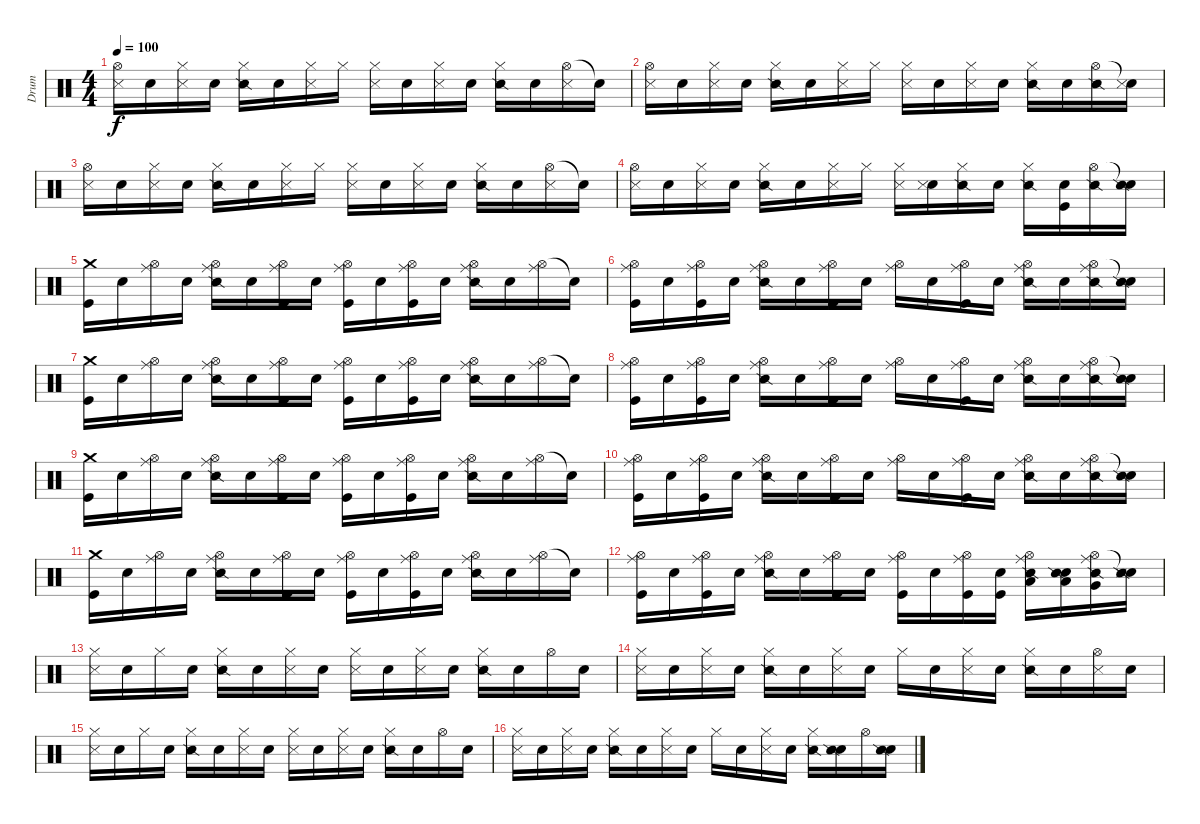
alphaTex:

\track ("Drum" "Drum") {instrument percussion}
\staff {score}
\articulation defaults
\ts (4 4)
\tempo 100
\clef neutral
\ks c
("Hi-Hat (open)" "Metronome (hit)").16{dy f} "Snare (hit)".16 ("Hi-Hat (closed)" "Metronome (hit)").16 "Snare (hit)".16 ("Hi-Hat (closed)" "Snare (side stick) 2").16 "Snare (hit)".16 ("Hi-Hat (closed)" "Metronome (hit)").16 "Hi-Hat (closed)".16 ("Hi-Hat (closed)" "Metronome (hit)").16 "Snare (hit)".16 ("Hi-Hat (closed)" "Metronome (hit)").16 "Snare (hit)".16 ("Hi-Hat (closed)" "Snare (side stick) 2").16 "Snare (hit)".16 ("Hi-Hat (open)" "Metronome (hit)").16 "Snare (hit)"{t}.16 |
("Hi-Hat (open)" "Metronome (hit)").16 "Snare (hit)".16 ("Hi-Hat (closed)" "Metronome (hit)").16 "Snare (hit)".16 ("Hi-Hat (closed)" "Snare (side stick) 2").16 "Snare (hit)".16 ("Hi-Hat (closed)" "Metronome (hit)").16 "Hi-Hat (closed)".16 ("Hi-Hat (closed)" "Metronome (hit)").16 "Snare (hit)".16 ("Hi-Hat (closed)" "Metronome (hit)").16 "Snare (hit)".16 ("Hi-Hat (closed)" "Snare (side stick) 2").16 "Snare (hit)".16 ("Hi-Hat (open)" "Snare (side stick) 2").16 ("Snare (hit)"{t} "Metronome (hit)").16 |
("Hi-Hat (open)" "Metronome (hit)").16 "Snare (hit)".16 ("Hi-Hat (closed)" "Metronome (hit)").16 "Snare (hit)".16 ("Hi-Hat (closed)" "Snare (side stick) 2").16 "Snare (hit)".16 ("Hi-Hat (closed)" "Metronome (hit)").16 "Hi-Hat (closed)".16 ("Hi-Hat (closed)" "Metronome (hit)").16 "Snare (hit)".16 ("Hi-Hat (closed)" "Metronome (hit)").16 "Snare (hit)".16 ("Hi-Hat (closed)" "Snare (side stick) 2").16 "Snare (hit)".16 ("Hi-Hat (open)" "Metronome (hit)").16 "Snare (hit)"{t}.16 |
("Hi-Hat (open)" "Metronome (hit)").16 "Snare (hit)".16 ("Hi-Hat (closed)" "Metronome (hit)").16 "Snare (hit)".16 ("Hi-Hat (closed)" "Snare (side stick) 2").16 "Snare (hit)".16 ("Hi-Hat (closed)" "Metronome (hit)").16 "Hi-Hat (closed)".16 ("Hi-Hat (closed)" "Metronome (hit)").16 ("Snare (hit)" "Metronome (hit)").16 ("Hi-Hat (closed)" "Snare (side stick) 2").16 "Snare (hit)".16 ("Hi-Hat (closed)" "Snare (side stick) 2").16 ("Snare (hit)" "Kick (hit)").16 ("Hi-Hat (open)" "Snare (side stick) 2").16 ("Snare (hit)"{t} "Snare (side stick) 2").16 |
("Crash medium (hit)" "Kick (hit)").16 "Snare (hit)".16 ("Hi-Hat (open)" "Ride (middle)").16 "Snare (hit)".16 ("Hi-Hat (open)" "Ride (middle)" "Snare (side stick) 2").16 "Snare (hit)".16 ("Hi-Hat (open)" "Ride (middle)" "Kick (hit)").16 "Snare (hit)".16 ("Hi-Hat (open)" "Ride (middle)" "Kick (hit)").16 "Snare (hit)".16 ("Hi-Hat (open)" "Ride (middle)" "Kick (hit)").16 "Snare (hit)".16 ("Hi-Hat (open)" "Ride (middle)" "Snare (side stick) 2").16 "Snare (hit)".16 ("Hi-Hat (open)" "Ride (middle)").16 "Snare (hit)"{t}.16 |
("Hi-Hat (open)" "Ride (middle)" "Kick (hit)").16 "Snare (hit)".16 ("Hi-Hat (open)" "Ride (middle)" "Kick (hit)").16 "Snare (hit)".16 ("Hi-Hat (open)" "Ride (middle)" "Snare (side stick) 2").16 "Snare (hit)".16 ("Hi-Hat (open)" "Ride (middle)" "Kick (hit)").16 "Snare (hit)".16 ("Hi-Hat (open)" "Ride (middle)").16 "Snare (hit)".16 ("Hi-Hat (open)" "Ride (middle)" "Kick (hit)").16 "Snare (hit)".16 ("Hi-Hat (open)" "Ride (middle)" "Snare (side stick) 2").16 "Snare (hit)".16 ("Hi-Hat (open)" "Ride (middle)" "Snare (side stick) 2").16 ("Snare (hit)"{t} "Snare (side stick) 2").16 |
("Crash medium (hit)" "Kick (hit)").16 "Snare (hit)".16 ("Hi-Hat (open)" "Ride (middle)").16 "Snare (hit)".16 ("Hi-Hat (open)" "Ride (middle)" "Snare (side stick) 2").16 "Snare (hit)".16 ("Hi-Hat (open)" "Ride (middle)" "Kick (hit)").16 "Snare (hit)".16 ("Hi-Hat (open)" "Ride (middle)" "Kick (hit)").16 "Snare (hit)".16 ("Hi-Hat (open)" "Ride (middle)" "Kick (hit)").16 "Snare (hit)".16 ("Hi-Hat (open)" "Ride (middle)" "Snare (side stick) 2").16 "Snare (hit)".16 ("Hi-Hat (open)" "Ride (middle)").16 "Snare (hit)"{t}.16 |
("Hi-Hat (open)" "Ride (middle)" "Kick (hit)").16 "Snare (hit)".16 ("Hi-Hat (open)" "Ride (middle)" "Kick (hit)").16 "Snare (hit)".16 ("Hi-Hat (open)" "Ride (middle)" "Snare (side stick) 2").16 "Snare (hit)".16 ("Hi-Hat (open)" "Ride (middle)" "Kick (hit)").16 "Snare (hit)".16 ("Hi-Hat (open)" "Ride (middle)").16 "Snare (hit)".16 ("Hi-Hat (open)" "Ride (middle)" "Kick (hit)").16 "Snare (hit)".16 ("Hi-Hat (open)" "Ride (middle)" "Snare (side stick) 2").16 "Snare (hit)".16 ("Hi-Hat (open)" "Ride (middle)" "Snare (side stick) 2").16 ("Snare (hit)"{t} "Snare (side stick) 2").16 |
("Crash medium (hit)" "Kick (hit)").16 "Snare (hit)".16 ("Hi-Hat (open)" "Ride (middle)").16 "Snare (hit)".16 ("Hi-Hat (open)" "Ride (middle)" "Snare (side stick) 2").16 "Snare (hit)".16 ("Hi-Hat (open)" "Ride (middle)" "Kick (hit)").16 "Snare (hit)".16 ("Hi-Hat (open)" "Ride (middle)" "Kick (hit)").16 "Snare (hit)".16 ("Hi-Hat (open)" "Ride (middle)" "Kick (hit)").16 "Snare (hit)".16 ("Hi-Hat (open)" "Ride (middle)" "Snare (side stick) 2").16 "Snare (hit)".16 ("Hi-Hat (open)" "Ride (middle)").16 "Snare (hit)"{t}.16 |
("Hi-Hat (open)" "Ride (middle)" "Kick (hit)").16 "Snare (hit)".16 ("Hi-Hat (open)" "Ride (middle)" "Kick (hit)").16 "Snare (hit)".16 ("Hi-Hat (open)" "Ride (middle)" "Snare (side stick) 2").16 "Snare (hit)".16 ("Hi-Hat (open)" "Ride (middle)" "Kick (hit)").16 "Snare (hit)".16 ("Hi-Hat (open)" "Ride (middle)").16 "Snare (hit)".16 ("Hi-Hat (open)" "Ride (middle)" "Kick (hit)").16 "Snare (hit)".16 ("Hi-Hat (open)" "Ride (middle)" "Snare (side stick) 2").16 "Snare (hit)".16 ("Hi-Hat (open)" "Ride (middle)" "Snare (side stick) 2").16 ("Snare (hit)"{t} "Snare (side stick) 2").16 |
("Crash medium (hit)" "Kick (hit)").16 "Snare (hit)".16 ("Hi-Hat (open)" "Ride (middle)").16 "Snare (hit)".16 ("Hi-Hat (open)" "Ride (middle)" "Snare (side stick) 2").16 "Snare (hit)".16 ("Hi-Hat (open)" "Ride (middle)" "Kick (hit)").16 "Snare (hit)".16 ("Hi-Hat (open)" "Ride (middle)" "Kick (hit)").16 "Snare (hit)".16 ("Hi-Hat (open)" "Ride (middle)" "Kick (hit)").16 "Snare (hit)".16 ("Hi-Hat (open)" "Ride (middle)" "Snare (side stick) 2").16 "Snare (hit)".16 ("Hi-Hat (open)" "Ride (middle)").16 "Snare (hit)"{t}.16 |
("Hi-Hat (open)" "Ride (middle)" "Kick (hit)").16 "Snare (hit)".16 ("Hi-Hat (open)" "Ride (middle)" "Kick (hit)").16 "Snare (hit)".16 ("Hi-Hat (open)" "Ride (middle)" "Snare (side stick) 2").16 "Snare (hit)".16 ("Hi-Hat (open)" "Ride (middle)" "Kick (hit)").16 "Snare (hit)".16 ("Hi-Hat (open)" "Ride (middle)" "Kick (hit)").16 "Snare (hit)".16 ("Hi-Hat (open)" "Ride (middle)" "Kick (hit)").16 ("Snare (hit)" "Kick (hit)").16 ("Hi-Hat (open)" "Ride (middle)" "Snare (side stick) 2" "Low Tom (hit)").16 ("Snare (hit)" "Snare (side stick) 2" "Low Tom (hit)").16 ("Hi-Hat (open)" "Ride (middle)" "Snare (side stick) 2" "Very Low Tom (hit)").16 ("Snare (hit)"{t} "Snare (side stick) 2" "Metronome (hit)").16 |
("Hi-Hat (closed)" "Metronome (hit)").16 "Snare (hit)".16 "Hi-Hat (closed)".16 "Snare (hit)".16 ("Hi-Hat (closed)" "Snare (side stick) 2").16 "Snare (hit)".16 ("Hi-Hat (closed)" "Metronome (hit)").16 "Snare (hit)".16 ("Hi-Hat (closed)" "Metronome (hit)").16 "Snare (hit)".16 ("Hi-Hat (closed)" "Metronome (hit)").16 "Snare (hit)".16 ("Hi-Hat (closed)" "Snare (side stick) 2").16 "Snare (hit)".16 "Hi-Hat (open)".16 "Snare (hit)".16 |
("Hi-Hat (closed)" "Metronome (hit)").16 "Snare (hit)".16 ("Hi-Hat (closed)" "Metronome (hit)").16 "Snare (hit)".16 ("Hi-Hat (closed)" "Snare (side stick) 2").16 "Snare (hit)".16 ("Hi-Hat (closed)" "Metronome (hit)").16 "Snare (hit)".16 "Hi-Hat (closed)".16 "Snare (hit)".16 ("Hi-Hat (closed)" "Metronome (hit)").16 "Snare (hit)".16 ("Hi-Hat (closed)" "Snare (side stick) 2").16 "Snare (hit)".16 ("Hi-Hat (open)" "Metronome (hit)").16 "Snare (hit)".16 |
("Hi-Hat (closed)" "Metronome (hit)").16 "Snare (hit)".16 "Hi-Hat (closed)".16 "Snare (hit)".16 ("Hi-Hat (closed)" "Snare (side stick) 2").16 "Snare (hit)".16 ("Hi-Hat (closed)" "Metronome (hit)").16 "Snare (hit)".16 ("Hi-Hat (closed)" "Metronome (hit)").16 "Snare (hit)".16 ("Hi-Hat (closed)" "Metronome (hit)").16 "Snare (hit)".16 ("Hi-Hat (closed)" "Snare (side stick) 2").16 "Snare (hit)".16 "Hi-Hat (open)".16 "Snare (hit)".16 |
("Hi-Hat (closed)" "Metronome (hit)").16 "Snare (hit)".16 ("Hi-Hat (closed)" "Metronome (hit)").16 "Snare (hit)".16 ("Hi-Hat (closed)" "Snare (side stick) 2").16 "Snare (hit)".16 ("Hi-Hat (closed)" "Metronome (hit)").16 "Snare (hit)".16 "Hi-Hat (closed)".16 "Snare (hit)".16 ("Hi-Hat (closed)" "Metronome (hit)").16 "Snare (hit)".16 ("Hi-Hat (closed)" "Snare (side stick) 2").16 ("Snare (hit)" "Snare (side stick) 2").16 "Hi-Hat (open)".16 ("Snare (hit)" "Snare (side stick) 2").16
